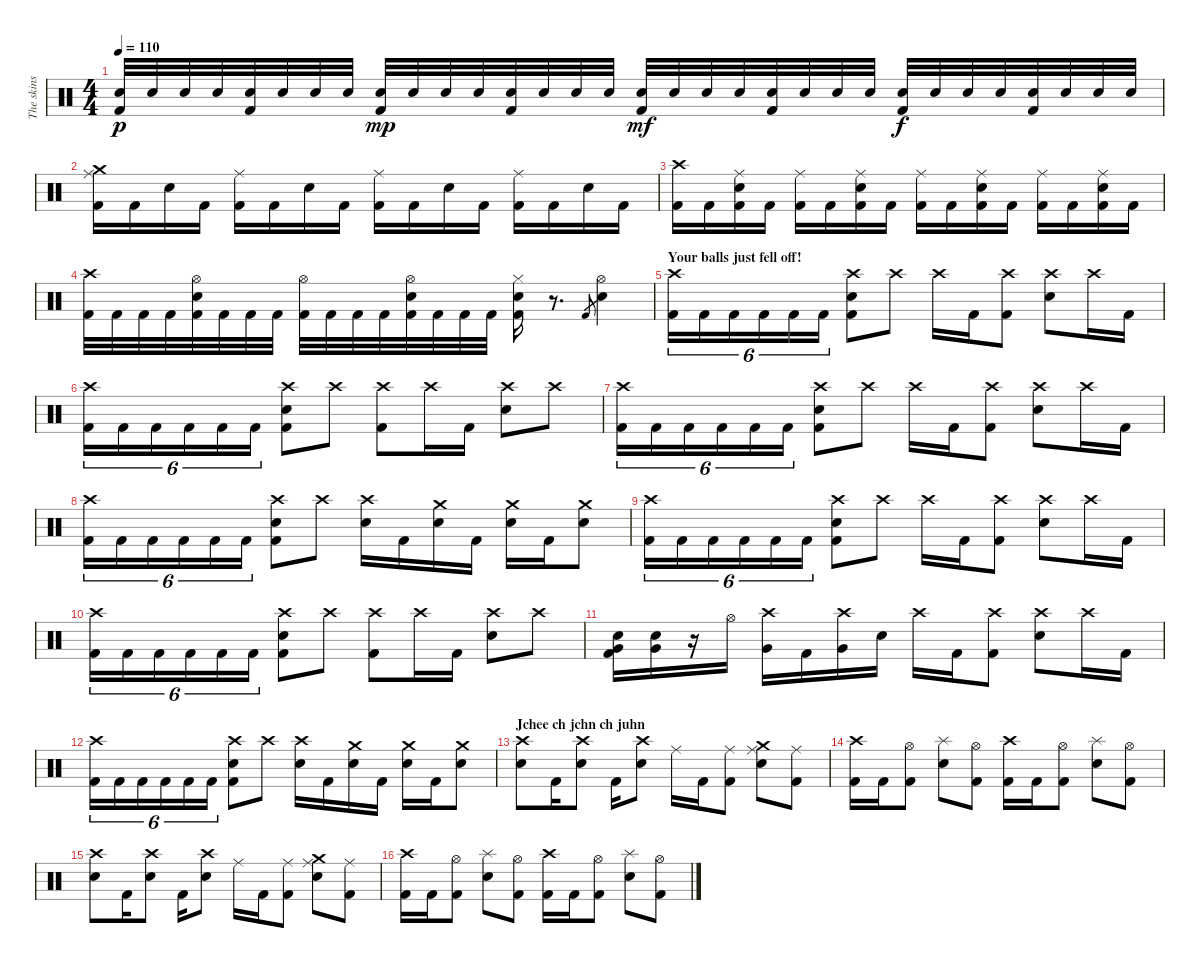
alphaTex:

\track ("The skins" "The skins") {instrument percussion}
\staff {score}
\articulation defaults
\ts (4 4)
\tempo 110
\clef neutral
\ks c
("Electric Snare (hit)" "Kick (hit) 2").32{dy p} "Electric Snare (hit)".32 "Electric Snare (hit)".32 "Electric Snare (hit)".32 ("Electric Snare (hit)" "Kick (hit) 2").32 "Electric Snare (hit)".32 "Electric Snare (hit)".32 "Electric Snare (hit)".32 ("Electric Snare (hit)" "Kick (hit) 2").32{dy mp} "Electric Snare (hit)".32 "Electric Snare (hit)".32 "Electric Snare (hit)".32 ("Electric Snare (hit)" "Kick (hit) 2").32 "Electric Snare (hit)".32 "Electric Snare (hit)".32 "Electric Snare (hit)".32 ("Electric Snare (hit)" "Kick (hit) 2").32{dy mf} "Electric Snare (hit)".32 "Electric Snare (hit)".32 "Electric Snare (hit)".32 ("Electric Snare (hit)" "Kick (hit) 2").32 "Electric Snare (hit)".32 "Electric Snare (hit)".32 "Electric Snare (hit)".32 ("Electric Snare (hit)" "Kick (hit) 2").32{dy f} "Electric Snare (hit)".32 "Electric Snare (hit)".32 "Electric Snare (hit)".32 ("Electric Snare (hit)" "Kick (hit) 2").32 "Electric Snare (hit)".32 "Electric Snare (hit)".32 "Electric Snare (hit)".32 |
("Crash medium (hit)" "Ride (middle)" "Kick (hit) 2").16 "Kick (hit) 2".16 "Electric Snare (hit)".16 "Kick (hit) 2".16 ("Ride (middle)" "Kick (hit) 2").16 "Kick (hit) 2".16 "Electric Snare (hit)".16 "Kick (hit) 2".16 ("Ride (middle)" "Kick (hit) 2").16 "Kick (hit) 2".16 "Electric Snare (hit)".16 "Kick (hit) 2".16 ("Ride (middle)" "Kick (hit) 2").16 "Kick (hit) 2".16 "Electric Snare (hit)".16 "Kick (hit) 2".16 |
("Crash high (hit)" "Kick (hit) 2").16 "Kick (hit) 2".16 ("Ride (middle)" "Electric Snare (hit)" "Kick (hit) 2").16 "Kick (hit) 2".16 ("Ride (middle)" "Kick (hit) 2").16 "Kick (hit) 2".16 ("Ride (middle)" "Electric Snare (hit)" "Kick (hit) 2").16 "Kick (hit) 2".16 ("Ride (middle)" "Kick (hit) 2").16 "Kick (hit) 2".16 ("Ride (middle)" "Electric Snare (hit)" "Kick (hit) 2").16 "Kick (hit) 2".16 ("Ride (middle)" "Kick (hit) 2").16 "Kick (hit) 2".16 ("Ride (middle)" "Electric Snare (hit)" "Kick (hit) 2").16 "Kick (hit) 2".16 |
("Crash high (hit)" "Kick (hit) 2").32 "Kick (hit) 2".32 "Kick (hit) 2".32 "Kick (hit) 2".32 ("Hi-Hat (open)" "Electric Snare (hit)" "Kick (hit) 2").32 "Kick (hit) 2".32 "Kick (hit) 2".32 "Kick (hit) 2".32 ("Hi-Hat (open)" "Kick (hit) 2").32 "Kick (hit) 2".32 "Kick (hit) 2".32 "Kick (hit) 2".32 ("Hi-Hat (open)" "Electric Snare (hit)" "Kick (hit) 2").32 "Kick (hit) 2".32 "Kick (hit) 2".32 "Kick (hit) 2".32 ("Hi-Hat (closed)" "Electric Snare (hit)" "Kick (hit) 2").16 r.8{d} "Kick (hit) 2".8{gr} ("Hi-Hat (open)" "Electric Snare (hit)").4 |
\section ("" "Your balls just fell off!")
("Crash high (hit)" "Kick (hit) 2").16{tu (6 4)} "Kick (hit) 2".16{tu (6 4)} "Kick (hit) 2".16{tu (6 4)} "Kick (hit) 2".16{tu (6 4)} "Kick (hit) 2".16{tu (6 4)} "Kick (hit) 2".16{tu (6 4)} ("Crash high (hit)" "Electric Snare (hit)" "Kick (hit) 2").8 "Crash high (hit)".8 "Crash high (hit)".16 "Kick (hit) 2".16 ("Crash high (hit)" "Kick (hit) 2").8 ("Crash high (hit)" "Electric Snare (hit)").8 "Crash high (hit)".16 "Kick (hit) 2".16 |
("Crash high (hit)" "Kick (hit) 2").16{tu (6 4)} "Kick (hit) 2".16{tu (6 4)} "Kick (hit) 2".16{tu (6 4)} "Kick (hit) 2".16{tu (6 4)} "Kick (hit) 2".16{tu (6 4)} "Kick (hit) 2".16{tu (6 4)} ("Crash high (hit)" "Electric Snare (hit)" "Kick (hit) 2").8 "Crash high (hit)".8 ("Crash high (hit)" "Kick (hit) 2").8 "Crash high (hit)".16 "Kick (hit) 2".16 ("Crash high (hit)" "Electric Snare (hit)").8 "Crash high (hit)".8 |
("Crash high (hit)" "Kick (hit) 2").16{tu (6 4)} "Kick (hit) 2".16{tu (6 4)} "Kick (hit) 2".16{tu (6 4)} "Kick (hit) 2".16{tu (6 4)} "Kick (hit) 2".16{tu (6 4)} "Kick (hit) 2".16{tu (6 4)} ("Crash high (hit)" "Electric Snare (hit)" "Kick (hit) 2").8 "Crash high (hit)".8 "Crash high (hit)".16 "Kick (hit) 2".16 ("Crash high (hit)" "Kick (hit) 2").8 ("Crash high (hit)" "Electric Snare (hit)").8 "Crash high (hit)".16 "Kick (hit) 2".16 |
("Crash high (hit)" "Kick (hit) 2").16{tu (6 4)} "Kick (hit) 2".16{tu (6 4)} "Kick (hit) 2".16{tu (6 4)} "Kick (hit) 2".16{tu (6 4)} "Kick (hit) 2".16{tu (6 4)} "Kick (hit) 2".16{tu (6 4)} ("Crash high (hit)" "Electric Snare (hit)" "Kick (hit) 2").8 "Crash high (hit)".8 ("Crash high (hit)" "Electric Snare (hit)").16 "Kick (hit) 2".16 ("Crash medium (hit)" "Electric Snare (hit)").16 "Kick (hit) 2".16 ("Crash medium (hit)" "Electric Snare (hit)").16 "Kick (hit) 2".16 ("Crash medium (hit)" "Electric Snare (hit)").8 |
("Crash high (hit)" "Kick (hit) 2").16{tu (6 4)} "Kick (hit) 2".16{tu (6 4)} "Kick (hit) 2".16{tu (6 4)} "Kick (hit) 2".16{tu (6 4)} "Kick (hit) 2".16{tu (6 4)} "Kick (hit) 2".16{tu (6 4)} ("Crash high (hit)" "Electric Snare (hit)" "Kick (hit) 2").8 "Crash high (hit)".8 "Crash high (hit)".16 "Kick (hit) 2".16 ("Crash high (hit)" "Kick (hit) 2").8 ("Crash high (hit)" "Electric Snare (hit)").8 "Crash high (hit)".16 "Kick (hit) 2".16 |
("Crash high (hit)" "Kick (hit) 2").16{tu (6 4)} "Kick (hit) 2".16{tu (6 4)} "Kick (hit) 2".16{tu (6 4)} "Kick (hit) 2".16{tu (6 4)} "Kick (hit) 2".16{tu (6 4)} "Kick (hit) 2".16{tu (6 4)} ("Crash high (hit)" "Electric Snare (hit)" "Kick (hit) 2").8 "Crash high (hit)".8 ("Crash high (hit)" "Kick (hit) 2").8 "Crash high (hit)".16 "Kick (hit) 2".16 ("Crash high (hit)" "Electric Snare (hit)").8 "Crash high (hit)".8 |
("Very Low Tom (hit)" "Electric Snare (hit)" "Kick (hit) 2").16 ("Very Low Tom (hit)" "Electric Snare (hit)").16 r.16 "Hi-Hat (open)".16 ("Crash high (hit)" "Very Low Tom (hit)").16 "Kick (hit) 2".16 ("Crash high (hit)" "Very Low Tom (hit)").16 "Electric Snare (hit)".16 "Crash high (hit)".16 "Kick (hit) 2".16 ("Crash high (hit)" "Kick (hit) 2").8 ("Crash high (hit)" "Electric Snare (hit)").8 "Crash high (hit)".16 "Kick (hit) 2".16 |
("Crash high (hit)" "Kick (hit) 2").16{tu (6 4)} "Kick (hit) 2".16{tu (6 4)} "Kick (hit) 2".16{tu (6 4)} "Kick (hit) 2".16{tu (6 4)} "Kick (hit) 2".16{tu (6 4)} "Kick (hit) 2".16{tu (6 4)} ("Crash high (hit)" "Electric Snare (hit)" "Kick (hit) 2").8 "Crash high (hit)".8 ("Crash high (hit)" "Electric Snare (hit)").16 "Kick (hit) 2".16 ("Crash medium (hit)" "Electric Snare (hit)").16 "Kick (hit) 2".16 ("Crash medium (hit)" "Electric Snare (hit)").16 "Kick (hit) 2".16 ("Crash medium (hit)" "Electric Snare (hit)").8 |
\section ("" "Jchee ch jchn ch juhn")
("Crash high (hit)" "Electric Snare (hit)").8 "Kick (hit) 2".16 ("Crash high (hit)" "Electric Snare (hit)").8 "Kick (hit) 2".16 ("Crash high (hit)" "Electric Snare (hit)").8 "Ride (middle)".16 "Kick (hit) 2".16 ("Ride (middle)" "Kick (hit) 2").8 ("Crash medium (hit)" "Ride (middle)" "Electric Snare (hit)").8 ("Ride (middle)" "Kick (hit) 2").8 |
("Crash high (hit)" "Kick (hit) 2").16 "Kick (hit) 2".16 ("Hi-Hat (open)" "Kick (hit) 2").8 ("Splash (hit)" "Electric Snare (hit)").8 ("Hi-Hat (open)" "Kick (hit) 2").8 ("Crash high (hit)" "Kick (hit) 2").16 "Kick (hit) 2".16 ("Hi-Hat (open)" "Kick (hit) 2").8 ("Splash (hit)" "Electric Snare (hit)").8 ("Hi-Hat (open)" "Kick (hit) 2").8 |
("Crash high (hit)" "Electric Snare (hit)").8 "Kick (hit) 2".16 ("Crash high (hit)" "Electric Snare (hit)").8 "Kick (hit) 2".16 ("Crash high (hit)" "Electric Snare (hit)").8 "Ride (middle)".16 "Kick (hit) 2".16 ("Ride (middle)" "Kick (hit) 2").8 ("Crash medium (hit)" "Ride (middle)" "Electric Snare (hit)").8 ("Ride (middle)" "Kick (hit) 2").8 |
("Crash high (hit)" "Kick (hit) 2").16 "Kick (hit) 2".16 ("Hi-Hat (open)" "Kick (hit) 2").8 ("Splash (hit)" "Electric Snare (hit)").8 ("Hi-Hat (open)" "Kick (hit) 2").8 ("Crash high (hit)" "Kick (hit) 2").16 "Kick (hit) 2".16 ("Hi-Hat (open)" "Kick (hit) 2").8 ("Splash (hit)" "Electric Snare (hit)").8 ("Hi-Hat (open)" "Kick (hit) 2").8
